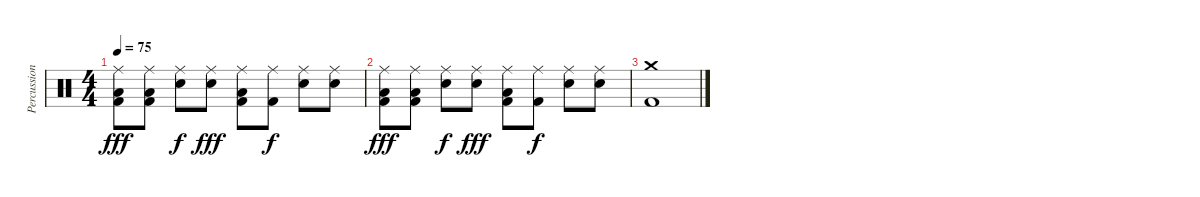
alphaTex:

\track ("Percussion" "Percussion") {instrument percussion}
\staff {score}
\articulation defaults
\ts (4 4)
\tempo 75
\clef neutral
\ks c
("Ride (middle)" "Low Floor Tom (hit)" "Kick (hit) 2").8{dy fff} ("Ride (middle)" "Low Floor Tom (hit)" "Kick (hit) 2").8 ("Ride (middle)" "Snare (hit) 2").8{dy f} ("Ride (middle)" "Snare (hit) 2").8{dy fff} ("Ride (middle)" "Low Floor Tom (hit)" "Kick (hit) 2").8 ("Ride (middle)" "Kick (hit) 2").8{dy f} ("Ride (middle)" "Snare (hit) 2").8 ("Ride (middle)" "Snare (hit) 2").8 |
("Ride (middle)" "Low Floor Tom (hit)" "Kick (hit) 2").8{dy fff} ("Ride (middle)" "Low Floor Tom (hit)" "Kick (hit) 2").8 ("Ride (middle)" "Snare (hit) 2").8{dy f} ("Ride (middle)" "Snare (hit) 2").8{dy fff} ("Ride (middle)" "Low Floor Tom (hit)" "Kick (hit) 2").8 ("Ride (middle)" "Kick (hit) 2").8{dy f} ("Ride (middle)" "Snare (hit) 2").8 ("Ride (middle)" "Snare (hit) 2").8 |
("Crash medium (hit)" "Kick (hit) 2").1
